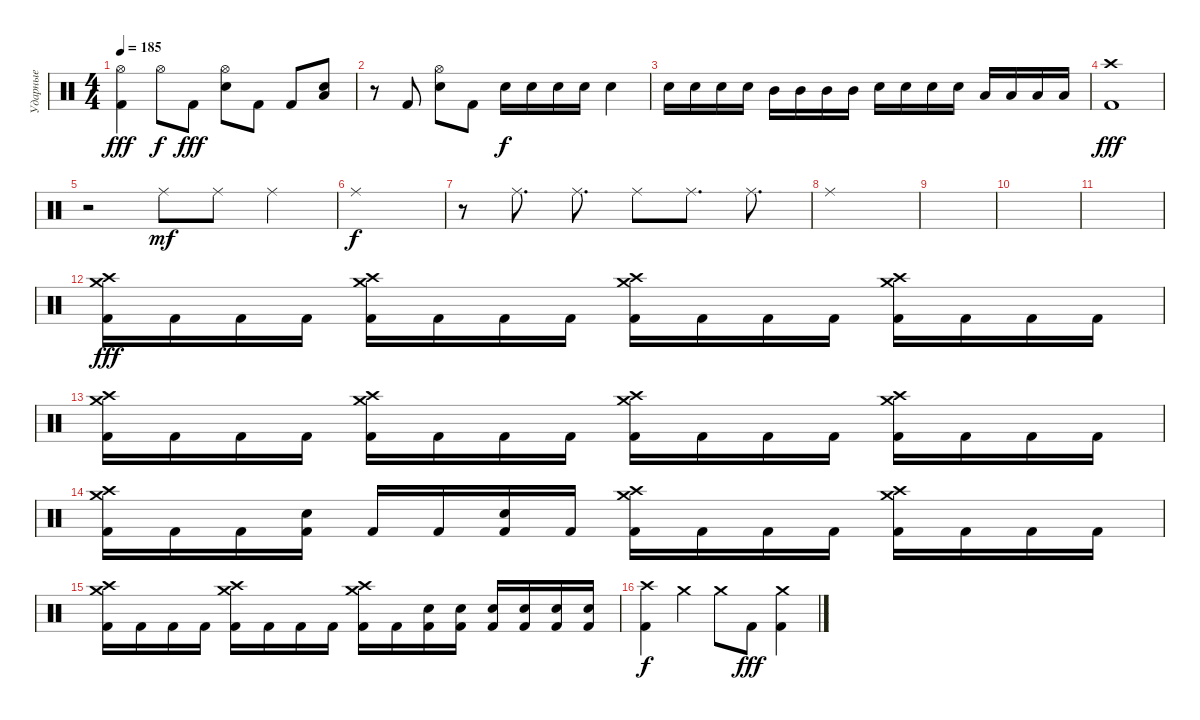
\track ("Ударные" "Ударные") {instrument percussion}
\staff {score}
\articulation defaults
\ts (4 4)
\tempo 185
\clef neutral
\ks c
("Hi-Hat (open)" "Kick (hit) 2").4{dy fff} "Hi-Hat (open)".8{dy f} "Kick (hit) 2".8{dy fff} ("Hi-Hat (open)" "Electric Snare (hit)").8 "Kick (hit) 2".8 "Kick (hit) 2".8 ("Low Floor Tom (hit)" "Electric Snare (hit)").8 |
r.8 "Kick (hit) 2".8 ("Hi-Hat (open)" "Electric Snare (hit)").8 "Kick (hit) 2".8 "Electric Snare (hit)".16{dy f} "Electric Snare (hit)".16 "Electric Snare (hit)".16 "Electric Snare (hit)".16 "Electric Snare (hit)".4 |
"Electric Snare (hit)".16 "Electric Snare (hit)".16 "Electric Snare (hit)".16 "Electric Snare (hit)".16 "Mid Tom (hit)".16 "Mid Tom (hit)".16 "Mid Tom (hit)".16 "Mid Tom (hit)".16 "Electric Snare (hit)".16 "Electric Snare (hit)".16 "Electric Snare (hit)".16 "Electric Snare (hit)".16 "Low Floor Tom (hit)".16 "Low Floor Tom (hit)".16 "Low Floor Tom (hit)".16 "Low Floor Tom (hit)".16 |
("Crash high (hit)" "Kick (hit) 2").1{dy fff} |
r.2 "Ride (middle)".8{dy mf} "Ride (middle)".8 "Ride (middle)".4 |
"Ride (middle)".1{dy f} |
r.8 "Ride (middle)".8{d} "Ride (middle)".8{d} "Ride (middle)".8 "Ride (middle)".8{d} "Ride (middle)".8{d} |
"Ride (middle)".1 |
|
|
|
("Crash medium (hit)" "Crash high (hit)" "Kick (hit) 2").16{dy fff} "Kick (hit) 2".16 "Kick (hit) 2".16 "Kick (hit) 2".16 ("Crash medium (hit)" "Crash high (hit)" "Kick (hit) 2").16 "Kick (hit) 2".16 "Kick (hit) 2".16 "Kick (hit) 2".16 ("Crash medium (hit)" "Crash high (hit)" "Kick (hit) 2").16 "Kick (hit) 2".16 "Kick (hit) 2".16 "Kick (hit) 2".16 ("Crash medium (hit)" "Crash high (hit)" "Kick (hit) 2").16 "Kick (hit) 2".16 "Kick (hit) 2".16 "Kick (hit) 2".16 |
("Crash medium (hit)" "Crash high (hit)" "Kick (hit) 2").16 "Kick (hit) 2".16 "Kick (hit) 2".16 "Kick (hit) 2".16 ("Crash medium (hit)" "Crash high (hit)" "Kick (hit) 2").16 "Kick (hit) 2".16 "Kick (hit) 2".16 "Kick (hit) 2".16 ("Crash medium (hit)" "Crash high (hit)" "Kick (hit) 2").16 "Kick (hit) 2".16 "Kick (hit) 2".16 "Kick (hit) 2".16 ("Crash medium (hit)" "Crash high (hit)" "Kick (hit) 2").16 "Kick (hit) 2".16 "Kick (hit) 2".16 "Kick (hit) 2".16 |
("Crash medium (hit)" "Crash high (hit)" "Kick (hit) 2").16 "Kick (hit) 2".16 "Kick (hit) 2".16 ("Electric Snare (hit)" "Kick (hit) 2").16 "Kick (hit) 2".16 "Kick (hit) 2".16 ("Electric Snare (hit)" "Kick (hit) 2").16 "Kick (hit) 2".16 ("Crash medium (hit)" "Crash high (hit)" "Kick (hit) 2").16 "Kick (hit) 2".16 "Kick (hit) 2".16 "Kick (hit) 2".16 ("Crash medium (hit)" "Crash high (hit)" "Kick (hit) 2").16 "Kick (hit) 2".16 "Kick (hit) 2".16 "Kick (hit) 2".16 |
("Crash medium (hit)" "Crash high (hit)" "Kick (hit) 2").16 "Kick (hit) 2".16 "Kick (hit) 2".16 "Kick (hit) 2".16 ("Crash medium (hit)" "Crash high (hit)" "Kick (hit) 2").16 "Kick (hit) 2".16 "Kick (hit) 2".16 "Kick (hit) 2".16 ("Crash medium (hit)" "Crash high (hit)" "Kick (hit) 2").16 "Kick (hit) 2".16 ("Electric Snare (hit)" "Kick (hit) 2").16 ("Electric Snare (hit)" "Kick (hit) 2").16 ("Electric Snare (hit)" "Kick (hit) 2").16 ("Electric Snare (hit)" "Kick (hit) 2").16 ("Electric Snare (hit)" "Kick (hit) 2").16 ("Electric Snare (hit)" "Kick (hit) 2").16 |
("Crash high (hit)" "Kick (hit) 2").4{dy f} "Crash medium (hit)".4 "Crash medium (hit)".8 "Kick (hit) 2".8{dy fff} ("Crash medium (hit)" "Kick (hit) 2").4
